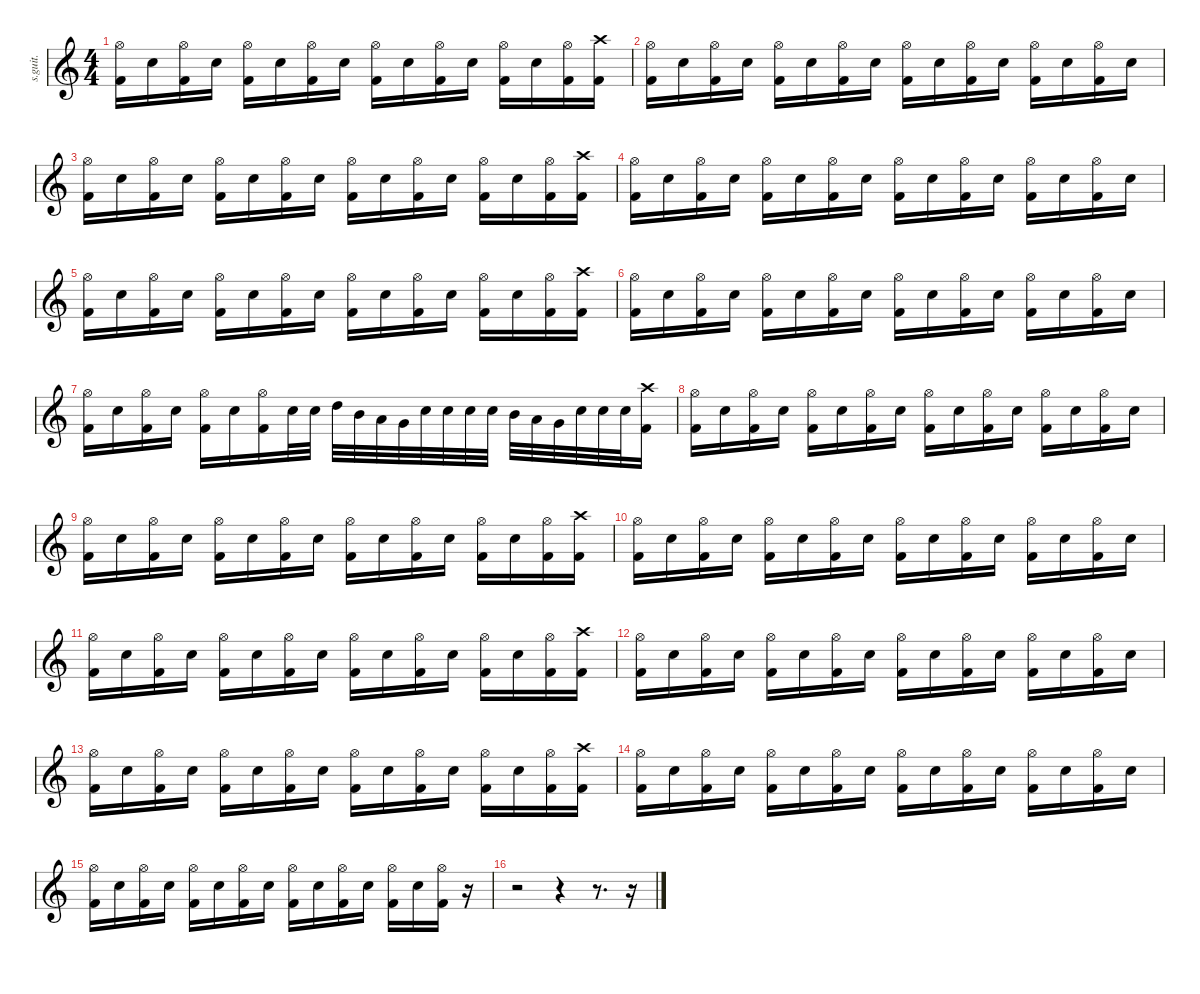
\defaultSystemsLayout 4
\hideDynamics
\bracketExtendMode nobrackets
\track ("Tomas Haake" "s.guit.") {instrument percussion}
\staff {score}
\articulation defaults
\ts (4 4)
\tempo (110 hide)
\clef g2
\ks c
("Hi-Hat (open)" "Kick (hit) 2").16{lyrics (0 "") lyrics (1 "") lyrics (2 "") lyrics (3 "") lyrics (4 "") dy f} "Snare (hit) 2".16{lyrics (0 "") lyrics (1 "") lyrics (2 "") lyrics (3 "") lyrics (4 "")} ("Hi-Hat (open)" "Kick (hit) 2").16{lyrics (0 "") lyrics (1 "") lyrics (2 "") lyrics (3 "") lyrics (4 "")} "Snare (hit) 2".16{lyrics (0 "") lyrics (1 "") lyrics (2 "") lyrics (3 "") lyrics (4 "")} ("Hi-Hat (open)" "Kick (hit) 2").16{lyrics (0 "") lyrics (1 "") lyrics (2 "") lyrics (3 "") lyrics (4 "")} "Snare (hit) 2".16{lyrics (0 "") lyrics (1 "") lyrics (2 "") lyrics (3 "") lyrics (4 "")} ("Hi-Hat (open)" "Kick (hit) 2").16{lyrics (0 "") lyrics (1 "") lyrics (2 "") lyrics (3 "") lyrics (4 "")} "Snare (hit) 2".16{lyrics (0 "") lyrics (1 "") lyrics (2 "") lyrics (3 "") lyrics (4 "")} ("Hi-Hat (open)" "Kick (hit) 2").16{lyrics (0 "") lyrics (1 "") lyrics (2 "") lyrics (3 "") lyrics (4 "")} "Snare (hit) 2".16{lyrics (0 "") lyrics (1 "") lyrics (2 "") lyrics (3 "") lyrics (4 "")} ("Hi-Hat (open)" "Kick (hit) 2").16{lyrics (0 "") lyrics (1 "") lyrics (2 "") lyrics (3 "") lyrics (4 "")} "Snare (hit) 2".16{lyrics (0 "") lyrics (1 "") lyrics (2 "") lyrics (3 "") lyrics (4 "")} ("Hi-Hat (open)" "Kick (hit) 2").16{lyrics (0 "") lyrics (1 "") lyrics (2 "") lyrics (3 "") lyrics (4 "")} "Snare (hit) 2".16{lyrics (0 "") lyrics (1 "") lyrics (2 "") lyrics (3 "") lyrics (4 "")} ("Hi-Hat (open)" "Kick (hit) 2").16{lyrics (0 "") lyrics (1 "") lyrics (2 "") lyrics (3 "") lyrics (4 "")} ("Crash high (hit)" "Kick (hit) 2").16{lyrics (0 "") lyrics (1 "") lyrics (2 "") lyrics (3 "") lyrics (4 "")} |
("Hi-Hat (open)" "Kick (hit) 2").16{lyrics (0 "") lyrics (1 "") lyrics (2 "") lyrics (3 "") lyrics (4 "")} "Snare (hit) 2".16{lyrics (0 "") lyrics (1 "") lyrics (2 "") lyrics (3 "") lyrics (4 "")} ("Hi-Hat (open)" "Kick (hit) 2").16{lyrics (0 "") lyrics (1 "") lyrics (2 "") lyrics (3 "") lyrics (4 "")} "Snare (hit) 2".16{lyrics (0 "") lyrics (1 "") lyrics (2 "") lyrics (3 "") lyrics (4 "")} ("Hi-Hat (open)" "Kick (hit) 2").16{lyrics (0 "") lyrics (1 "") lyrics (2 "") lyrics (3 "") lyrics (4 "")} "Snare (hit) 2".16{lyrics (0 "") lyrics (1 "") lyrics (2 "") lyrics (3 "") lyrics (4 "")} ("Hi-Hat (open)" "Kick (hit) 2").16{lyrics (0 "") lyrics (1 "") lyrics (2 "") lyrics (3 "") lyrics (4 "")} "Snare (hit) 2".16{lyrics (0 "") lyrics (1 "") lyrics (2 "") lyrics (3 "") lyrics (4 "")} ("Hi-Hat (open)" "Kick (hit) 2").16{lyrics (0 "") lyrics (1 "") lyrics (2 "") lyrics (3 "") lyrics (4 "")} "Snare (hit) 2".16{lyrics (0 "") lyrics (1 "") lyrics (2 "") lyrics (3 "") lyrics (4 "")} ("Hi-Hat (open)" "Kick (hit) 2").16{lyrics (0 "") lyrics (1 "") lyrics (2 "") lyrics (3 "") lyrics (4 "")} "Snare (hit) 2".16{lyrics (0 "") lyrics (1 "") lyrics (2 "") lyrics (3 "") lyrics (4 "")} ("Hi-Hat (open)" "Kick (hit) 2").16{lyrics (0 "") lyrics (1 "") lyrics (2 "") lyrics (3 "") lyrics (4 "")} "Snare (hit) 2".16{lyrics (0 "") lyrics (1 "") lyrics (2 "") lyrics (3 "") lyrics (4 "")} ("Hi-Hat (open)" "Kick (hit) 2").16{lyrics (0 "") lyrics (1 "") lyrics (2 "") lyrics (3 "") lyrics (4 "")} "Snare (hit) 2".16{lyrics (0 "") lyrics (1 "") lyrics (2 "") lyrics (3 "") lyrics (4 "")} |
("Hi-Hat (open)" "Kick (hit) 2").16{lyrics (0 "") lyrics (1 "") lyrics (2 "") lyrics (3 "") lyrics (4 "")} "Snare (hit) 2".16{lyrics (0 "") lyrics (1 "") lyrics (2 "") lyrics (3 "") lyrics (4 "")} ("Hi-Hat (open)" "Kick (hit) 2").16{lyrics (0 "") lyrics (1 "") lyrics (2 "") lyrics (3 "") lyrics (4 "")} "Snare (hit) 2".16{lyrics (0 "") lyrics (1 "") lyrics (2 "") lyrics (3 "") lyrics (4 "")} ("Hi-Hat (open)" "Kick (hit) 2").16{lyrics (0 "") lyrics (1 "") lyrics (2 "") lyrics (3 "") lyrics (4 "")} "Snare (hit) 2".16{lyrics (0 "") lyrics (1 "") lyrics (2 "") lyrics (3 "") lyrics (4 "")} ("Hi-Hat (open)" "Kick (hit) 2").16{lyrics (0 "") lyrics (1 "") lyrics (2 "") lyrics (3 "") lyrics (4 "")} "Snare (hit) 2".16{lyrics (0 "") lyrics (1 "") lyrics (2 "") lyrics (3 "") lyrics (4 "")} ("Hi-Hat (open)" "Kick (hit) 2").16{lyrics (0 "") lyrics (1 "") lyrics (2 "") lyrics (3 "") lyrics (4 "")} "Snare (hit) 2".16{lyrics (0 "") lyrics (1 "") lyrics (2 "") lyrics (3 "") lyrics (4 "")} ("Hi-Hat (open)" "Kick (hit) 2").16{lyrics (0 "") lyrics (1 "") lyrics (2 "") lyrics (3 "") lyrics (4 "")} "Snare (hit) 2".16{lyrics (0 "") lyrics (1 "") lyrics (2 "") lyrics (3 "") lyrics (4 "")} ("Hi-Hat (open)" "Kick (hit) 2").16{lyrics (0 "") lyrics (1 "") lyrics (2 "") lyrics (3 "") lyrics (4 "")} "Snare (hit) 2".16{lyrics (0 "") lyrics (1 "") lyrics (2 "") lyrics (3 "") lyrics (4 "")} ("Hi-Hat (open)" "Kick (hit) 2").16{lyrics (0 "") lyrics (1 "") lyrics (2 "") lyrics (3 "") lyrics (4 "")} ("Crash high (hit)" "Kick (hit) 2").16{lyrics (0 "") lyrics (1 "") lyrics (2 "") lyrics (3 "") lyrics (4 "")} |
("Hi-Hat (open)" "Kick (hit) 2").16{lyrics (0 "") lyrics (1 "") lyrics (2 "") lyrics (3 "") lyrics (4 "")} "Snare (hit) 2".16{lyrics (0 "") lyrics (1 "") lyrics (2 "") lyrics (3 "") lyrics (4 "")} ("Hi-Hat (open)" "Kick (hit) 2").16{lyrics (0 "") lyrics (1 "") lyrics (2 "") lyrics (3 "") lyrics (4 "")} "Snare (hit) 2".16{lyrics (0 "") lyrics (1 "") lyrics (2 "") lyrics (3 "") lyrics (4 "")} ("Hi-Hat (open)" "Kick (hit) 2").16{lyrics (0 "") lyrics (1 "") lyrics (2 "") lyrics (3 "") lyrics (4 "")} "Snare (hit) 2".16{lyrics (0 "") lyrics (1 "") lyrics (2 "") lyrics (3 "") lyrics (4 "")} ("Hi-Hat (open)" "Kick (hit) 2").16{lyrics (0 "") lyrics (1 "") lyrics (2 "") lyrics (3 "") lyrics (4 "")} "Snare (hit) 2".16{lyrics (0 "") lyrics (1 "") lyrics (2 "") lyrics (3 "") lyrics (4 "")} ("Hi-Hat (open)" "Kick (hit) 2").16{lyrics (0 "") lyrics (1 "") lyrics (2 "") lyrics (3 "") lyrics (4 "")} "Snare (hit) 2".16{lyrics (0 "") lyrics (1 "") lyrics (2 "") lyrics (3 "") lyrics (4 "")} ("Hi-Hat (open)" "Kick (hit) 2").16{lyrics (0 "") lyrics (1 "") lyrics (2 "") lyrics (3 "") lyrics (4 "")} "Snare (hit) 2".16{lyrics (0 "") lyrics (1 "") lyrics (2 "") lyrics (3 "") lyrics (4 "")} ("Hi-Hat (open)" "Kick (hit) 2").16{lyrics (0 "") lyrics (1 "") lyrics (2 "") lyrics (3 "") lyrics (4 "")} "Snare (hit) 2".16{lyrics (0 "") lyrics (1 "") lyrics (2 "") lyrics (3 "") lyrics (4 "")} ("Hi-Hat (open)" "Kick (hit) 2").16{lyrics (0 "") lyrics (1 "") lyrics (2 "") lyrics (3 "") lyrics (4 "")} "Snare (hit) 2".16{lyrics (0 "") lyrics (1 "") lyrics (2 "") lyrics (3 "") lyrics (4 "")} |
("Hi-Hat (open)" "Kick (hit) 2").16{lyrics (0 "") lyrics (1 "") lyrics (2 "") lyrics (3 "") lyrics (4 "")} "Snare (hit) 2".16{lyrics (0 "") lyrics (1 "") lyrics (2 "") lyrics (3 "") lyrics (4 "")} ("Hi-Hat (open)" "Kick (hit) 2").16{lyrics (0 "") lyrics (1 "") lyrics (2 "") lyrics (3 "") lyrics (4 "")} "Snare (hit) 2".16{lyrics (0 "") lyrics (1 "") lyrics (2 "") lyrics (3 "") lyrics (4 "")} ("Hi-Hat (open)" "Kick (hit) 2").16{lyrics (0 "") lyrics (1 "") lyrics (2 "") lyrics (3 "") lyrics (4 "")} "Snare (hit) 2".16{lyrics (0 "") lyrics (1 "") lyrics (2 "") lyrics (3 "") lyrics (4 "")} ("Hi-Hat (open)" "Kick (hit) 2").16{lyrics (0 "") lyrics (1 "") lyrics (2 "") lyrics (3 "") lyrics (4 "")} "Snare (hit) 2".16{lyrics (0 "") lyrics (1 "") lyrics (2 "") lyrics (3 "") lyrics (4 "")} ("Hi-Hat (open)" "Kick (hit) 2").16{lyrics (0 "") lyrics (1 "") lyrics (2 "") lyrics (3 "") lyrics (4 "")} "Snare (hit) 2".16{lyrics (0 "") lyrics (1 "") lyrics (2 "") lyrics (3 "") lyrics (4 "")} ("Hi-Hat (open)" "Kick (hit) 2").16{lyrics (0 "") lyrics (1 "") lyrics (2 "") lyrics (3 "") lyrics (4 "")} "Snare (hit) 2".16{lyrics (0 "") lyrics (1 "") lyrics (2 "") lyrics (3 "") lyrics (4 "")} ("Hi-Hat (open)" "Kick (hit) 2").16{lyrics (0 "") lyrics (1 "") lyrics (2 "") lyrics (3 "") lyrics (4 "")} "Snare (hit) 2".16{lyrics (0 "") lyrics (1 "") lyrics (2 "") lyrics (3 "") lyrics (4 "")} ("Hi-Hat (open)" "Kick (hit) 2").16{lyrics (0 "") lyrics (1 "") lyrics (2 "") lyrics (3 "") lyrics (4 "")} ("Crash high (hit)" "Kick (hit) 2").16{lyrics (0 "") lyrics (1 "") lyrics (2 "") lyrics (3 "") lyrics (4 "")} |
("Hi-Hat (open)" "Kick (hit) 2").16{lyrics (0 "") lyrics (1 "") lyrics (2 "") lyrics (3 "") lyrics (4 "")} "Snare (hit) 2".16{lyrics (0 "") lyrics (1 "") lyrics (2 "") lyrics (3 "") lyrics (4 "")} ("Hi-Hat (open)" "Kick (hit) 2").16{lyrics (0 "") lyrics (1 "") lyrics (2 "") lyrics (3 "") lyrics (4 "")} "Snare (hit) 2".16{lyrics (0 "") lyrics (1 "") lyrics (2 "") lyrics (3 "") lyrics (4 "")} ("Hi-Hat (open)" "Kick (hit) 2").16{lyrics (0 "") lyrics (1 "") lyrics (2 "") lyrics (3 "") lyrics (4 "")} "Snare (hit) 2".16{lyrics (0 "") lyrics (1 "") lyrics (2 "") lyrics (3 "") lyrics (4 "")} ("Hi-Hat (open)" "Kick (hit) 2").16{lyrics (0 "") lyrics (1 "") lyrics (2 "") lyrics (3 "") lyrics (4 "")} "Snare (hit) 2".16{lyrics (0 "") lyrics (1 "") lyrics (2 "") lyrics (3 "") lyrics (4 "")} ("Hi-Hat (open)" "Kick (hit) 2").16{lyrics (0 "") lyrics (1 "") lyrics (2 "") lyrics (3 "") lyrics (4 "")} "Snare (hit) 2".16{lyrics (0 "") lyrics (1 "") lyrics (2 "") lyrics (3 "") lyrics (4 "")} ("Hi-Hat (open)" "Kick (hit) 2").16{lyrics (0 "") lyrics (1 "") lyrics (2 "") lyrics (3 "") lyrics (4 "")} "Snare (hit) 2".16{lyrics (0 "") lyrics (1 "") lyrics (2 "") lyrics (3 "") lyrics (4 "")} ("Hi-Hat (open)" "Kick (hit) 2").16{lyrics (0 "") lyrics (1 "") lyrics (2 "") lyrics (3 "") lyrics (4 "")} "Snare (hit) 2".16{lyrics (0 "") lyrics (1 "") lyrics (2 "") lyrics (3 "") lyrics (4 "")} ("Hi-Hat (open)" "Kick (hit) 2").16{lyrics (0 "") lyrics (1 "") lyrics (2 "") lyrics (3 "") lyrics (4 "")} "Snare (hit) 2".16{lyrics (0 "") lyrics (1 "") lyrics (2 "") lyrics (3 "") lyrics (4 "")} |
("Hi-Hat (open)" "Kick (hit) 2").16{lyrics (0 "") lyrics (1 "") lyrics (2 "") lyrics (3 "") lyrics (4 "")} "Snare (hit) 2".16{lyrics (0 "") lyrics (1 "") lyrics (2 "") lyrics (3 "") lyrics (4 "")} ("Hi-Hat (open)" "Kick (hit) 2").16{lyrics (0 "") lyrics (1 "") lyrics (2 "") lyrics (3 "") lyrics (4 "")} "Snare (hit) 2".16{lyrics (0 "") lyrics (1 "") lyrics (2 "") lyrics (3 "") lyrics (4 "")} ("Hi-Hat (open)" "Kick (hit) 2").16{lyrics (0 "") lyrics (1 "") lyrics (2 "") lyrics (3 "") lyrics (4 "")} "Snare (hit) 2".16{lyrics (0 "") lyrics (1 "") lyrics (2 "") lyrics (3 "") lyrics (4 "")} ("Hi-Hat (open)" "Kick (hit) 2").16{lyrics (0 "") lyrics (1 "") lyrics (2 "") lyrics (3 "") lyrics (4 "")} "Snare (hit) 2".32{lyrics (0 "") lyrics (1 "") lyrics (2 "") lyrics (3 "") lyrics (4 "")} "Snare (hit) 2".32{lyrics (0 "") lyrics (1 "") lyrics (2 "") lyrics (3 "") lyrics (4 "")} "High Tom (hit)".32{lyrics (0 "") lyrics (1 "") lyrics (2 "") lyrics (3 "") lyrics (4 "")} "Mid Tom (hit)".32{lyrics (0 "") lyrics (1 "") lyrics (2 "") lyrics (3 "") lyrics (4 "")} "Low Tom (hit)".32{lyrics (0 "") lyrics (1 "") lyrics (2 "") lyrics (3 "") lyrics (4 "")} "Very Low Tom (hit)".32{lyrics (0 "") lyrics (1 "") lyrics (2 "") lyrics (3 "") lyrics (4 "")} "Snare (hit) 2".32{lyrics (0 "") lyrics (1 "") lyrics (2 "") lyrics (3 "") lyrics (4 "")} "Snare (hit) 2".32{lyrics (0 "") lyrics (1 "") lyrics (2 "") lyrics (3 "") lyrics (4 "")} "Snare (hit) 2".32{lyrics (0 "") lyrics (1 "") lyrics (2 "") lyrics (3 "") lyrics (4 "")} "Snare (hit) 2".32{lyrics (0 "") lyrics (1 "") lyrics (2 "") lyrics (3 "") lyrics (4 "")} "Mid Tom (hit)".32{lyrics (0 "") lyrics (1 "") lyrics (2 "") lyrics (3 "") lyrics (4 "")} "Low Tom (hit)".32{lyrics (0 "") lyrics (1 "") lyrics (2 "") lyrics (3 "") lyrics (4 "")} "Very Low Tom (hit)".32{lyrics (0 "") lyrics (1 "") lyrics (2 "") lyrics (3 "") lyrics (4 "")} "Snare (hit) 2".32{lyrics (0 "") lyrics (1 "") lyrics (2 "") lyrics (3 "") lyrics (4 "")} "Snare (hit) 2".32{lyrics (0 "") lyrics (1 "") lyrics (2 "") lyrics (3 "") lyrics (4 "")} "Snare (hit) 2".32{lyrics (0 "") lyrics (1 "") lyrics (2 "") lyrics (3 "") lyrics (4 "")} ("Crash high (hit)" "Kick (hit) 2").16{lyrics (0 "") lyrics (1 "") lyrics (2 "") lyrics (3 "") lyrics (4 "")} |
("Hi-Hat (open)" "Kick (hit) 2").16{lyrics (0 "") lyrics (1 "") lyrics (2 "") lyrics (3 "") lyrics (4 "")} "Snare (hit) 2".16{lyrics (0 "") lyrics (1 "") lyrics (2 "") lyrics (3 "") lyrics (4 "")} ("Hi-Hat (open)" "Kick (hit) 2").16{lyrics (0 "") lyrics (1 "") lyrics (2 "") lyrics (3 "") lyrics (4 "")} "Snare (hit) 2".16{lyrics (0 "") lyrics (1 "") lyrics (2 "") lyrics (3 "") lyrics (4 "")} ("Hi-Hat (open)" "Kick (hit) 2").16{lyrics (0 "") lyrics (1 "") lyrics (2 "") lyrics (3 "") lyrics (4 "")} "Snare (hit) 2".16{lyrics (0 "") lyrics (1 "") lyrics (2 "") lyrics (3 "") lyrics (4 "")} ("Hi-Hat (open)" "Kick (hit) 2").16{lyrics (0 "") lyrics (1 "") lyrics (2 "") lyrics (3 "") lyrics (4 "")} "Snare (hit) 2".16{lyrics (0 "") lyrics (1 "") lyrics (2 "") lyrics (3 "") lyrics (4 "")} ("Hi-Hat (open)" "Kick (hit) 2").16{lyrics (0 "") lyrics (1 "") lyrics (2 "") lyrics (3 "") lyrics (4 "")} "Snare (hit) 2".16{lyrics (0 "") lyrics (1 "") lyrics (2 "") lyrics (3 "") lyrics (4 "")} ("Hi-Hat (open)" "Kick (hit) 2").16{lyrics (0 "") lyrics (1 "") lyrics (2 "") lyrics (3 "") lyrics (4 "")} "Snare (hit) 2".16{lyrics (0 "") lyrics (1 "") lyrics (2 "") lyrics (3 "") lyrics (4 "")} ("Hi-Hat (open)" "Kick (hit) 2").16{lyrics (0 "") lyrics (1 "") lyrics (2 "") lyrics (3 "") lyrics (4 "")} "Snare (hit) 2".16{lyrics (0 "") lyrics (1 "") lyrics (2 "") lyrics (3 "") lyrics (4 "")} ("Hi-Hat (open)" "Kick (hit) 2").16{lyrics (0 "") lyrics (1 "") lyrics (2 "") lyrics (3 "") lyrics (4 "")} "Snare (hit) 2".16{lyrics (0 "") lyrics (1 "") lyrics (2 "") lyrics (3 "") lyrics (4 "")} |
("Hi-Hat (open)" "Kick (hit) 2").16{lyrics (0 "") lyrics (1 "") lyrics (2 "") lyrics (3 "") lyrics (4 "")} "Snare (hit) 2".16{lyrics (0 "") lyrics (1 "") lyrics (2 "") lyrics (3 "") lyrics (4 "")} ("Hi-Hat (open)" "Kick (hit) 2").16{lyrics (0 "") lyrics (1 "") lyrics (2 "") lyrics (3 "") lyrics (4 "")} "Snare (hit) 2".16{lyrics (0 "") lyrics (1 "") lyrics (2 "") lyrics (3 "") lyrics (4 "")} ("Hi-Hat (open)" "Kick (hit) 2").16{lyrics (0 "") lyrics (1 "") lyrics (2 "") lyrics (3 "") lyrics (4 "")} "Snare (hit) 2".16{lyrics (0 "") lyrics (1 "") lyrics (2 "") lyrics (3 "") lyrics (4 "")} ("Hi-Hat (open)" "Kick (hit) 2").16{lyrics (0 "") lyrics (1 "") lyrics (2 "") lyrics (3 "") lyrics (4 "")} "Snare (hit) 2".16{lyrics (0 "") lyrics (1 "") lyrics (2 "") lyrics (3 "") lyrics (4 "")} ("Hi-Hat (open)" "Kick (hit) 2").16{lyrics (0 "") lyrics (1 "") lyrics (2 "") lyrics (3 "") lyrics (4 "")} "Snare (hit) 2".16{lyrics (0 "") lyrics (1 "") lyrics (2 "") lyrics (3 "") lyrics (4 "")} ("Hi-Hat (open)" "Kick (hit) 2").16{lyrics (0 "") lyrics (1 "") lyrics (2 "") lyrics (3 "") lyrics (4 "")} "Snare (hit) 2".16{lyrics (0 "") lyrics (1 "") lyrics (2 "") lyrics (3 "") lyrics (4 "")} ("Hi-Hat (open)" "Kick (hit) 2").16{lyrics (0 "") lyrics (1 "") lyrics (2 "") lyrics (3 "") lyrics (4 "")} "Snare (hit) 2".16{lyrics (0 "") lyrics (1 "") lyrics (2 "") lyrics (3 "") lyrics (4 "")} ("Hi-Hat (open)" "Kick (hit) 2").16{lyrics (0 "") lyrics (1 "") lyrics (2 "") lyrics (3 "") lyrics (4 "")} ("Crash high (hit)" "Kick (hit) 2").16{lyrics (0 "") lyrics (1 "") lyrics (2 "") lyrics (3 "") lyrics (4 "")} |
("Hi-Hat (open)" "Kick (hit) 2").16{lyrics (0 "") lyrics (1 "") lyrics (2 "") lyrics (3 "") lyrics (4 "")} "Snare (hit) 2".16{lyrics (0 "") lyrics (1 "") lyrics (2 "") lyrics (3 "") lyrics (4 "")} ("Hi-Hat (open)" "Kick (hit) 2").16{lyrics (0 "") lyrics (1 "") lyrics (2 "") lyrics (3 "") lyrics (4 "")} "Snare (hit) 2".16{lyrics (0 "") lyrics (1 "") lyrics (2 "") lyrics (3 "") lyrics (4 "")} ("Hi-Hat (open)" "Kick (hit) 2").16{lyrics (0 "") lyrics (1 "") lyrics (2 "") lyrics (3 "") lyrics (4 "")} "Snare (hit) 2".16{lyrics (0 "") lyrics (1 "") lyrics (2 "") lyrics (3 "") lyrics (4 "")} ("Hi-Hat (open)" "Kick (hit) 2").16{lyrics (0 "") lyrics (1 "") lyrics (2 "") lyrics (3 "") lyrics (4 "")} "Snare (hit) 2".16{lyrics (0 "") lyrics (1 "") lyrics (2 "") lyrics (3 "") lyrics (4 "")} ("Hi-Hat (open)" "Kick (hit) 2").16{lyrics (0 "") lyrics (1 "") lyrics (2 "") lyrics (3 "") lyrics (4 "")} "Snare (hit) 2".16{lyrics (0 "") lyrics (1 "") lyrics (2 "") lyrics (3 "") lyrics (4 "")} ("Hi-Hat (open)" "Kick (hit) 2").16{lyrics (0 "") lyrics (1 "") lyrics (2 "") lyrics (3 "") lyrics (4 "")} "Snare (hit) 2".16{lyrics (0 "") lyrics (1 "") lyrics (2 "") lyrics (3 "") lyrics (4 "")} ("Hi-Hat (open)" "Kick (hit) 2").16{lyrics (0 "") lyrics (1 "") lyrics (2 "") lyrics (3 "") lyrics (4 "")} "Snare (hit) 2".16{lyrics (0 "") lyrics (1 "") lyrics (2 "") lyrics (3 "") lyrics (4 "")} ("Hi-Hat (open)" "Kick (hit) 2").16{lyrics (0 "") lyrics (1 "") lyrics (2 "") lyrics (3 "") lyrics (4 "")} "Snare (hit) 2".16{lyrics (0 "") lyrics (1 "") lyrics (2 "") lyrics (3 "") lyrics (4 "")} |
("Hi-Hat (open)" "Kick (hit) 2").16{lyrics (0 "") lyrics (1 "") lyrics (2 "") lyrics (3 "") lyrics (4 "")} "Snare (hit) 2".16{lyrics (0 "") lyrics (1 "") lyrics (2 "") lyrics (3 "") lyrics (4 "")} ("Hi-Hat (open)" "Kick (hit) 2").16{lyrics (0 "") lyrics (1 "") lyrics (2 "") lyrics (3 "") lyrics (4 "")} "Snare (hit) 2".16{lyrics (0 "") lyrics (1 "") lyrics (2 "") lyrics (3 "") lyrics (4 "")} ("Hi-Hat (open)" "Kick (hit) 2").16{lyrics (0 "") lyrics (1 "") lyrics (2 "") lyrics (3 "") lyrics (4 "")} "Snare (hit) 2".16{lyrics (0 "") lyrics (1 "") lyrics (2 "") lyrics (3 "") lyrics (4 "")} ("Hi-Hat (open)" "Kick (hit) 2").16{lyrics (0 "") lyrics (1 "") lyrics (2 "") lyrics (3 "") lyrics (4 "")} "Snare (hit) 2".16{lyrics (0 "") lyrics (1 "") lyrics (2 "") lyrics (3 "") lyrics (4 "")} ("Hi-Hat (open)" "Kick (hit) 2").16{lyrics (0 "") lyrics (1 "") lyrics (2 "") lyrics (3 "") lyrics (4 "")} "Snare (hit) 2".16{lyrics (0 "") lyrics (1 "") lyrics (2 "") lyrics (3 "") lyrics (4 "")} ("Hi-Hat (open)" "Kick (hit) 2").16{lyrics (0 "") lyrics (1 "") lyrics (2 "") lyrics (3 "") lyrics (4 "")} "Snare (hit) 2".16{lyrics (0 "") lyrics (1 "") lyrics (2 "") lyrics (3 "") lyrics (4 "")} ("Hi-Hat (open)" "Kick (hit) 2").16{lyrics (0 "") lyrics (1 "") lyrics (2 "") lyrics (3 "") lyrics (4 "")} "Snare (hit) 2".16{lyrics (0 "") lyrics (1 "") lyrics (2 "") lyrics (3 "") lyrics (4 "")} ("Hi-Hat (open)" "Kick (hit) 2").16{lyrics (0 "") lyrics (1 "") lyrics (2 "") lyrics (3 "") lyrics (4 "")} ("Crash high (hit)" "Kick (hit) 2").16{lyrics (0 "") lyrics (1 "") lyrics (2 "") lyrics (3 "") lyrics (4 "")} |
("Hi-Hat (open)" "Kick (hit) 2").16{lyrics (0 "") lyrics (1 "") lyrics (2 "") lyrics (3 "") lyrics (4 "")} "Snare (hit) 2".16{lyrics (0 "") lyrics (1 "") lyrics (2 "") lyrics (3 "") lyrics (4 "")} ("Hi-Hat (open)" "Kick (hit) 2").16{lyrics (0 "") lyrics (1 "") lyrics (2 "") lyrics (3 "") lyrics (4 "")} "Snare (hit) 2".16{lyrics (0 "") lyrics (1 "") lyrics (2 "") lyrics (3 "") lyrics (4 "")} ("Hi-Hat (open)" "Kick (hit) 2").16{lyrics (0 "") lyrics (1 "") lyrics (2 "") lyrics (3 "") lyrics (4 "")} "Snare (hit) 2".16{lyrics (0 "") lyrics (1 "") lyrics (2 "") lyrics (3 "") lyrics (4 "")} ("Hi-Hat (open)" "Kick (hit) 2").16{lyrics (0 "") lyrics (1 "") lyrics (2 "") lyrics (3 "") lyrics (4 "")} "Snare (hit) 2".16{lyrics (0 "") lyrics (1 "") lyrics (2 "") lyrics (3 "") lyrics (4 "")} ("Hi-Hat (open)" "Kick (hit) 2").16{lyrics (0 "") lyrics (1 "") lyrics (2 "") lyrics (3 "") lyrics (4 "")} "Snare (hit) 2".16{lyrics (0 "") lyrics (1 "") lyrics (2 "") lyrics (3 "") lyrics (4 "")} ("Hi-Hat (open)" "Kick (hit) 2").16{lyrics (0 "") lyrics (1 "") lyrics (2 "") lyrics (3 "") lyrics (4 "")} "Snare (hit) 2".16{lyrics (0 "") lyrics (1 "") lyrics (2 "") lyrics (3 "") lyrics (4 "")} ("Hi-Hat (open)" "Kick (hit) 2").16{lyrics (0 "") lyrics (1 "") lyrics (2 "") lyrics (3 "") lyrics (4 "")} "Snare (hit) 2".16{lyrics (0 "") lyrics (1 "") lyrics (2 "") lyrics (3 "") lyrics (4 "")} ("Hi-Hat (open)" "Kick (hit) 2").16{lyrics (0 "") lyrics (1 "") lyrics (2 "") lyrics (3 "") lyrics (4 "")} "Snare (hit) 2".16{lyrics (0 "") lyrics (1 "") lyrics (2 "") lyrics (3 "") lyrics (4 "")} |
("Hi-Hat (open)" "Kick (hit) 2").16{lyrics (0 "") lyrics (1 "") lyrics (2 "") lyrics (3 "") lyrics (4 "")} "Snare (hit) 2".16{lyrics (0 "") lyrics (1 "") lyrics (2 "") lyrics (3 "") lyrics (4 "")} ("Hi-Hat (open)" "Kick (hit) 2").16{lyrics (0 "") lyrics (1 "") lyrics (2 "") lyrics (3 "") lyrics (4 "")} "Snare (hit) 2".16{lyrics (0 "") lyrics (1 "") lyrics (2 "") lyrics (3 "") lyrics (4 "")} ("Hi-Hat (open)" "Kick (hit) 2").16{lyrics (0 "") lyrics (1 "") lyrics (2 "") lyrics (3 "") lyrics (4 "")} "Snare (hit) 2".16{lyrics (0 "") lyrics (1 "") lyrics (2 "") lyrics (3 "") lyrics (4 "")} ("Hi-Hat (open)" "Kick (hit) 2").16{lyrics (0 "") lyrics (1 "") lyrics (2 "") lyrics (3 "") lyrics (4 "")} "Snare (hit) 2".16{lyrics (0 "") lyrics (1 "") lyrics (2 "") lyrics (3 "") lyrics (4 "")} ("Hi-Hat (open)" "Kick (hit) 2").16{lyrics (0 "") lyrics (1 "") lyrics (2 "") lyrics (3 "") lyrics (4 "")} "Snare (hit) 2".16{lyrics (0 "") lyrics (1 "") lyrics (2 "") lyrics (3 "") lyrics (4 "")} ("Hi-Hat (open)" "Kick (hit) 2").16{lyrics (0 "") lyrics (1 "") lyrics (2 "") lyrics (3 "") lyrics (4 "")} "Snare (hit) 2".16{lyrics (0 "") lyrics (1 "") lyrics (2 "") lyrics (3 "") lyrics (4 "")} ("Hi-Hat (open)" "Kick (hit) 2").16{lyrics (0 "") lyrics (1 "") lyrics (2 "") lyrics (3 "") lyrics (4 "")} "Snare (hit) 2".16{lyrics (0 "") lyrics (1 "") lyrics (2 "") lyrics (3 "") lyrics (4 "")} ("Hi-Hat (open)" "Kick (hit) 2").16{lyrics (0 "") lyrics (1 "") lyrics (2 "") lyrics (3 "") lyrics (4 "")} ("Crash high (hit)" "Kick (hit) 2").16{lyrics (0 "") lyrics (1 "") lyrics (2 "") lyrics (3 "") lyrics (4 "")} |
("Hi-Hat (open)" "Kick (hit) 2").16{lyrics (0 "") lyrics (1 "") lyrics (2 "") lyrics (3 "") lyrics (4 "")} "Snare (hit) 2".16{lyrics (0 "") lyrics (1 "") lyrics (2 "") lyrics (3 "") lyrics (4 "")} ("Hi-Hat (open)" "Kick (hit) 2").16{lyrics (0 "") lyrics (1 "") lyrics (2 "") lyrics (3 "") lyrics (4 "")} "Snare (hit) 2".16{lyrics (0 "") lyrics (1 "") lyrics (2 "") lyrics (3 "") lyrics (4 "")} ("Hi-Hat (open)" "Kick (hit) 2").16{lyrics (0 "") lyrics (1 "") lyrics (2 "") lyrics (3 "") lyrics (4 "")} "Snare (hit) 2".16{lyrics (0 "") lyrics (1 "") lyrics (2 "") lyrics (3 "") lyrics (4 "")} ("Hi-Hat (open)" "Kick (hit) 2").16{lyrics (0 "") lyrics (1 "") lyrics (2 "") lyrics (3 "") lyrics (4 "")} "Snare (hit) 2".16{lyrics (0 "") lyrics (1 "") lyrics (2 "") lyrics (3 "") lyrics (4 "")} ("Hi-Hat (open)" "Kick (hit) 2").16{lyrics (0 "") lyrics (1 "") lyrics (2 "") lyrics (3 "") lyrics (4 "")} "Snare (hit) 2".16{lyrics (0 "") lyrics (1 "") lyrics (2 "") lyrics (3 "") lyrics (4 "")} ("Hi-Hat (open)" "Kick (hit) 2").16{lyrics (0 "") lyrics (1 "") lyrics (2 "") lyrics (3 "") lyrics (4 "")} "Snare (hit) 2".16{lyrics (0 "") lyrics (1 "") lyrics (2 "") lyrics (3 "") lyrics (4 "")} ("Hi-Hat (open)" "Kick (hit) 2").16{lyrics (0 "") lyrics (1 "") lyrics (2 "") lyrics (3 "") lyrics (4 "")} "Snare (hit) 2".16{lyrics (0 "") lyrics (1 "") lyrics (2 "") lyrics (3 "") lyrics (4 "")} ("Hi-Hat (open)" "Kick (hit) 2").16{lyrics (0 "") lyrics (1 "") lyrics (2 "") lyrics (3 "") lyrics (4 "")} "Snare (hit) 2".16{lyrics (0 "") lyrics (1 "") lyrics (2 "") lyrics (3 "") lyrics (4 "")} |
("Hi-Hat (open)" "Kick (hit) 2").16{lyrics (0 "") lyrics (1 "") lyrics (2 "") lyrics (3 "") lyrics (4 "")} "Snare (hit) 2".16{lyrics (0 "") lyrics (1 "") lyrics (2 "") lyrics (3 "") lyrics (4 "")} ("Hi-Hat (open)" "Kick (hit) 2").16{lyrics (0 "") lyrics (1 "") lyrics (2 "") lyrics (3 "") lyrics (4 "")} "Snare (hit) 2".16{lyrics (0 "") lyrics (1 "") lyrics (2 "") lyrics (3 "") lyrics (4 "")} ("Hi-Hat (open)" "Kick (hit) 2").16{lyrics (0 "") lyrics (1 "") lyrics (2 "") lyrics (3 "") lyrics (4 "")} "Snare (hit) 2".16{lyrics (0 "") lyrics (1 "") lyrics (2 "") lyrics (3 "") lyrics (4 "")} ("Hi-Hat (open)" "Kick (hit) 2").16{lyrics (0 "") lyrics (1 "") lyrics (2 "") lyrics (3 "") lyrics (4 "")} "Snare (hit) 2".16{lyrics (0 "") lyrics (1 "") lyrics (2 "") lyrics (3 "") lyrics (4 "")} ("Hi-Hat (open)" "Kick (hit) 2").16{lyrics (0 "") lyrics (1 "") lyrics (2 "") lyrics (3 "") lyrics (4 "")} "Snare (hit) 2".16{lyrics (0 "") lyrics (1 "") lyrics (2 "") lyrics (3 "") lyrics (4 "")} ("Hi-Hat (open)" "Kick (hit) 2").16{lyrics (0 "") lyrics (1 "") lyrics (2 "") lyrics (3 "") lyrics (4 "")} "Snare (hit) 2".16{lyrics (0 "") lyrics (1 "") lyrics (2 "") lyrics (3 "") lyrics (4 "")} ("Hi-Hat (open)" "Kick (hit) 2").16{lyrics (0 "") lyrics (1 "") lyrics (2 "") lyrics (3 "") lyrics (4 "")} "Snare (hit) 2".16{lyrics (0 "") lyrics (1 "") lyrics (2 "") lyrics (3 "") lyrics (4 "")} ("Hi-Hat (open)" "Kick (hit) 2").16{lyrics (0 "") lyrics (1 "") lyrics (2 "") lyrics (3 "") lyrics (4 "")} r.16 |
r.2 r.4 r.8{d} r.16
